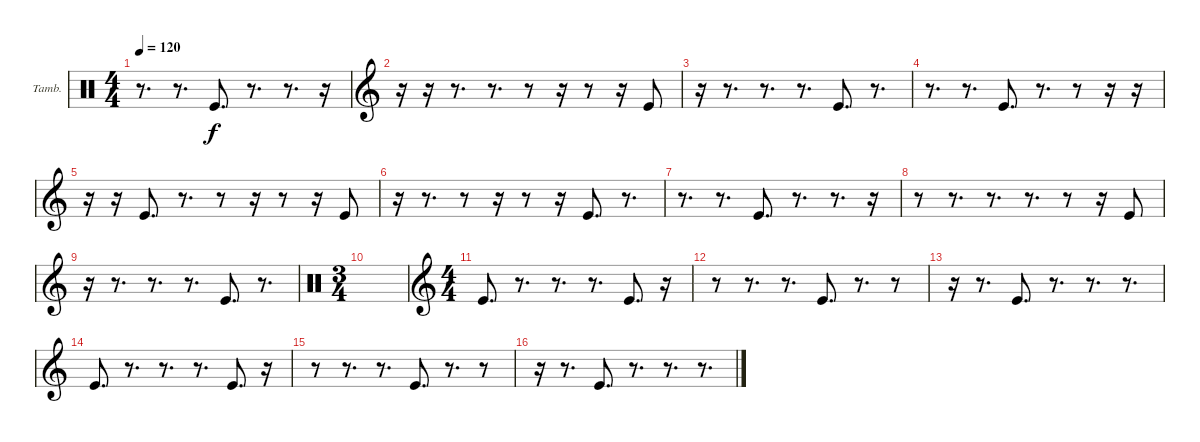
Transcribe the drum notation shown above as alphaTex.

\defaultSystemsLayout 4
\bracketExtendMode groupsimilarinstruments
\firstSystemTrackNameOrientation horizontal
\otherSystemsTrackNameOrientation horizontal
\track ("Tambourine" "Tamb.") {instrument percussion}
\staff {score}
\articulation defaults
\ts (4 4)
\tempo 120
\clef neutral
\scale
0.333333
\ks c
r.8{d dy f} r.8{d} "Kick (hit)".8{d} r.8{d} r.8{d} r.16 |
\clef g2
\scale
0.333333 r.16 r.16 r.8{d} r.8{d} r.8 r.16 r.8 r.16 "Kick (hit)".8 |
\scale
0.333333 r.16 r.8{d} r.8{d} r.8{d} "Kick (hit)".8{d} r.8{d} |
\scale
0.333333 r.8{d} r.8{d} "Kick (hit)".8{d} r.8{d} r.8 r.16 r.16 |
\scale
0.333333 r.16 r.16 "Kick (hit)".8{d} r.8{d} r.8 r.16 r.8 r.16 "Kick (hit)".8 |
\scale
0.333333 r.16 r.8{d} r.8 r.16 r.8 r.16 "Kick (hit)".8{d} r.8{d} |
\scale
0.333333 r.8{d} r.8{d} "Kick (hit)".8{d} r.8{d} r.8{d} r.16 |
\scale
0.333333 r.8 r.8{d} r.8{d} r.8{d} r.8 r.16 "Kick (hit)".8 |
r.16 r.8{d} r.8{d} r.8{d} "Kick (hit)".8{d} r.8{d} |
\ts (3 4)
\clef neutral
|
\ts (4 4)
\clef g2 "Kick (hit)".8{d}
r.8{d} r.8{d} r.8{d} "Kick (hit)".8{d} r.16 |
r.8 r.8{d} r.8{d} "Kick (hit)".8{d} r.8{d} r.8 |
r.16 r.8{d} "Kick (hit)".8{d} r.8{d} r.8{d} r.8{d} |
"Kick (hit)".8{d} r.8{d} r.8{d} r.8{d} "Kick (hit)".8{d} r.16 |
r.8 r.8{d} r.8{d} "Kick (hit)".8{d} r.8{d} r.8 |
r.16 r.8{d} "Kick (hit)".8{d} r.8{d} r.8{d} r.8{d}
